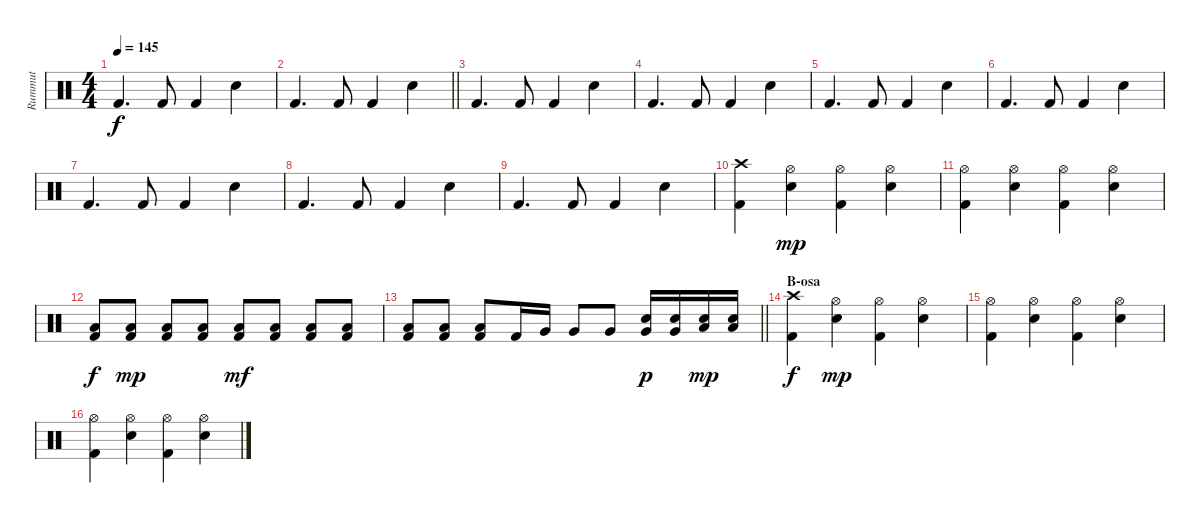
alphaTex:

\track ("Rummut" "Rummut") {instrument percussion}
\staff {score}
\articulation defaults
\ts (4 4)
\tempo 145
\clef neutral
\ks c "Kick (hit) 2".4{d dy f} "Kick (hit) 2".8 "Kick (hit) 2".4 "Snare (hit) 2".4
|
\barLineRight lightlight "Kick (hit) 2".4{d} "Kick (hit) 2".8 "Kick (hit) 2".4 "Snare (hit) 2".4
|
\section ("" "")
"Kick (hit) 2".4{d} "Kick (hit) 2".8 "Kick (hit) 2".4 "Snare (hit) 2".4 |
"Kick (hit) 2".4{d} "Kick (hit) 2".8 "Kick (hit) 2".4 "Snare (hit) 2".4 |
"Kick (hit) 2".4{d} "Kick (hit) 2".8 "Kick (hit) 2".4 "Snare (hit) 2".4 |
"Kick (hit) 2".4{d} "Kick (hit) 2".8 "Kick (hit) 2".4 "Snare (hit) 2".4 |
"Kick (hit) 2".4{d} "Kick (hit) 2".8 "Kick (hit) 2".4 "Snare (hit) 2".4 |
"Kick (hit) 2".4{d} "Kick (hit) 2".8 "Kick (hit) 2".4 "Snare (hit) 2".4 |
"Kick (hit) 2".4{d} "Kick (hit) 2".8 "Kick (hit) 2".4 "Snare (hit) 2".4 |
("Crash high (hit)" "Kick (hit) 2").4 ("Hi-Hat (open)" "Snare (hit) 2").4{dy mp} ("Hi-Hat (open)" "Kick (hit) 2").4 ("Hi-Hat (open)" "Snare (hit) 2").4 |
("Hi-Hat (open)" "Kick (hit) 2").4 ("Hi-Hat (open)" "Snare (hit) 2").4 ("Hi-Hat (open)" "Kick (hit) 2").4 ("Hi-Hat (open)" "Snare (hit) 2").4 |
("Low Floor Tom (hit)" "Kick (hit) 2").8{dy f} ("Low Floor Tom (hit)" "Kick (hit) 2").8{dy mp} ("Low Floor Tom (hit)" "Kick (hit) 2").8 ("Low Floor Tom (hit)" "Kick (hit) 2").8 ("Low Floor Tom (hit)" "Kick (hit) 2").8{dy mf} ("Low Floor Tom (hit)" "Kick (hit) 2").8 ("Low Floor Tom (hit)" "Kick (hit) 2").8 ("Low Floor Tom (hit)" "Kick (hit) 2").8 |
\barLineRight lightlight
("Low Floor Tom (hit)" "Kick (hit) 2").8 ("Low Floor Tom (hit)" "Kick (hit) 2").8 ("Low Floor Tom (hit)" "Kick (hit) 2").8 "Kick (hit) 2".16 "Very Low Tom (hit)".16 "Very Low Tom (hit)".8 "Very Low Tom (hit)".8 ("Very Low Tom (hit)" "Snare (hit) 2").16{dy p} ("Very Low Tom (hit)" "Snare (hit) 2").16 ("Low Floor Tom (hit)" "Snare (hit) 2").16{dy mp} ("Low Floor Tom (hit)" "Snare (hit) 2").16 |
\section ("" "B-osa")
("Crash high (hit)" "Kick (hit) 2").4{dy f} ("Hi-Hat (open)" "Snare (hit) 2").4{dy mp} ("Hi-Hat (open)" "Kick (hit) 2").4 ("Hi-Hat (open)" "Snare (hit) 2").4 |
("Hi-Hat (open)" "Kick (hit) 2").4 ("Hi-Hat (open)" "Snare (hit) 2").4 ("Hi-Hat (open)" "Kick (hit) 2").4 ("Hi-Hat (open)" "Snare (hit) 2").4 |
("Hi-Hat (open)" "Kick (hit) 2").4 ("Hi-Hat (open)" "Snare (hit) 2").4 ("Hi-Hat (open)" "Kick (hit) 2").4 ("Hi-Hat (open)" "Snare (hit) 2").4
